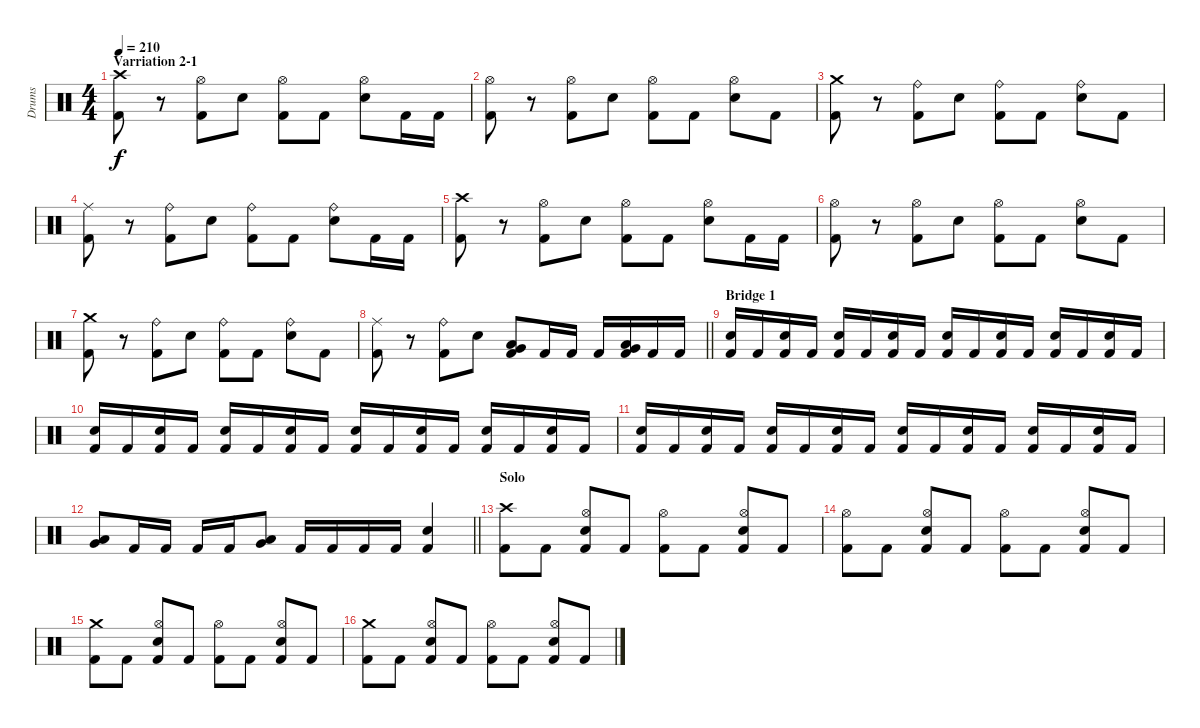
\track ("Drums" "Drums") {instrument percussion}
\staff {score}
\articulation defaults
\ts (4 4)
\section ("" "Varriation 2-1")
\tempo 210
\clef neutral
\ks c
("Crash high (hit)" "Kick (hit) 2").8{dy f} r.8 ("Hi-Hat (open)" "Kick (hit) 2").8 "Snare (hit) 2".8 ("Hi-Hat (open)" "Kick (hit) 2").8 "Kick (hit) 2".8 ("Hi-Hat (open)" "Snare (hit) 2").8 "Kick (hit) 2".16 "Kick (hit) 2".16 |
("Hi-Hat (open)" "Kick (hit) 2").8 r.8 ("Hi-Hat (open)" "Kick (hit) 2").8 "Snare (hit) 2".8 ("Hi-Hat (open)" "Kick (hit) 2").8 "Kick (hit) 2".8 ("Hi-Hat (open)" "Snare (hit) 2").8 "Kick (hit) 2".8 |
("Crash medium (hit)" "Kick (hit) 2").8 r.8 ("Ride (bell)" "Kick (hit) 2").8 "Snare (hit) 2".8 ("Ride (bell)" "Kick (hit) 2").8 "Kick (hit) 2".8 ("Ride (bell)" "Snare (hit) 2").8 "Kick (hit) 2".8 |
("Ride (middle)" "Kick (hit) 2").8 r.8 ("Ride (bell)" "Kick (hit) 2").8 "Snare (hit) 2".8 ("Ride (bell)" "Kick (hit) 2").8 "Kick (hit) 2".8 ("Ride (bell)" "Snare (hit) 2").8 "Kick (hit) 2".16 "Kick (hit) 2".16 |
("Crash high (hit)" "Kick (hit) 2").8 r.8 ("Hi-Hat (open)" "Kick (hit) 2").8 "Snare (hit) 2".8 ("Hi-Hat (open)" "Kick (hit) 2").8 "Kick (hit) 2".8 ("Hi-Hat (open)" "Snare (hit) 2").8 "Kick (hit) 2".16 "Kick (hit) 2".16 |
("Hi-Hat (open)" "Kick (hit) 2").8 r.8 ("Hi-Hat (open)" "Kick (hit) 2").8 "Snare (hit) 2".8 ("Hi-Hat (open)" "Kick (hit) 2").8 "Kick (hit) 2".8 ("Hi-Hat (open)" "Snare (hit) 2").8 "Kick (hit) 2".8 |
("Crash medium (hit)" "Kick (hit) 2").8 r.8 ("Ride (bell)" "Kick (hit) 2").8 "Snare (hit) 2".8 ("Ride (bell)" "Kick (hit) 2").8 "Kick (hit) 2".8 ("Ride (bell)" "Snare (hit) 2").8 "Kick (hit) 2".8 |
\barLineRight lightlight
("Ride (middle)" "Kick (hit) 2").8 r.8 ("Ride (bell)" "Kick (hit) 2").8 "Snare (hit) 2".8 ("Low Tom (hit)" "Very Low Tom (hit)" "Kick (hit) 2").8 "Kick (hit) 2".16 "Kick (hit) 2".16 "Kick (hit) 2".16 ("Low Tom (hit)" "Very Low Tom (hit)" "Kick (hit) 2").16 "Kick (hit) 2".16 "Kick (hit) 2".16 |
\section ("" "Bridge 1")
("Snare (hit) 2" "Kick (hit) 2").16 "Kick (hit) 2".16 ("Snare (hit) 2" "Kick (hit) 2").16 "Kick (hit) 2".16 ("Snare (hit) 2" "Kick (hit) 2").16 "Kick (hit) 2".16 ("Snare (hit) 2" "Kick (hit) 2").16 "Kick (hit) 2".16 ("Snare (hit) 2" "Kick (hit) 2").16 "Kick (hit) 2".16 ("Snare (hit) 2" "Kick (hit) 2").16 "Kick (hit) 2".16 ("Snare (hit) 2" "Kick (hit) 2").16 "Kick (hit) 2".16 ("Snare (hit) 2" "Kick (hit) 2").16 "Kick (hit) 2".16 |
("Snare (hit) 2" "Kick (hit) 2").16 "Kick (hit) 2".16 ("Snare (hit) 2" "Kick (hit) 2").16 "Kick (hit) 2".16 ("Snare (hit) 2" "Kick (hit) 2").16 "Kick (hit) 2".16 ("Snare (hit) 2" "Kick (hit) 2").16 "Kick (hit) 2".16 ("Snare (hit) 2" "Kick (hit) 2").16 "Kick (hit) 2".16 ("Snare (hit) 2" "Kick (hit) 2").16 "Kick (hit) 2".16 ("Snare (hit) 2" "Kick (hit) 2").16 "Kick (hit) 2".16 ("Snare (hit) 2" "Kick (hit) 2").16 "Kick (hit) 2".16 |
("Snare (hit) 2" "Kick (hit) 2").16 "Kick (hit) 2".16 ("Snare (hit) 2" "Kick (hit) 2").16 "Kick (hit) 2".16 ("Snare (hit) 2" "Kick (hit) 2").16 "Kick (hit) 2".16 ("Snare (hit) 2" "Kick (hit) 2").16 "Kick (hit) 2".16 ("Snare (hit) 2" "Kick (hit) 2").16 "Kick (hit) 2".16 ("Snare (hit) 2" "Kick (hit) 2").16 "Kick (hit) 2".16 ("Snare (hit) 2" "Kick (hit) 2").16 "Kick (hit) 2".16 ("Snare (hit) 2" "Kick (hit) 2").16 "Kick (hit) 2".16 |
\barLineRight lightlight
("Low Tom (hit)" "Very Low Tom (hit)").8 "Kick (hit) 2".16 "Kick (hit) 2".16 "Kick (hit) 2".16 "Kick (hit) 2".16 ("Low Tom (hit)" "Very Low Tom (hit)").8 "Kick (hit) 2".16 "Kick (hit) 2".16 "Kick (hit) 2".16 "Kick (hit) 2".16 ("Snare (hit) 2" "Kick (hit) 2").4 |
\section ("" "Solo")
("Crash high (hit)" "Kick (hit) 2").8 "Kick (hit) 2".8 ("Hi-Hat (open)" "Snare (hit) 2" "Kick (hit) 2").8 "Kick (hit) 2".8 ("Hi-Hat (open)" "Kick (hit) 2").8 "Kick (hit) 2".8 ("Hi-Hat (open)" "Snare (hit) 2" "Kick (hit) 2").8 "Kick (hit) 2".8 |
("Hi-Hat (open)" "Kick (hit) 2").8 "Kick (hit) 2".8 ("Hi-Hat (open)" "Snare (hit) 2" "Kick (hit) 2").8 "Kick (hit) 2".8 ("Hi-Hat (open)" "Kick (hit) 2").8 "Kick (hit) 2".8 ("Hi-Hat (open)" "Snare (hit) 2" "Kick (hit) 2").8 "Kick (hit) 2".8 |
("Crash medium (hit)" "Kick (hit) 2").8 "Kick (hit) 2".8 ("Hi-Hat (open)" "Snare (hit) 2" "Kick (hit) 2").8 "Kick (hit) 2".8 ("Hi-Hat (open)" "Kick (hit) 2").8 "Kick (hit) 2".8 ("Hi-Hat (open)" "Snare (hit) 2" "Kick (hit) 2").8 "Kick (hit) 2".8 |
("Crash medium (hit)" "Kick (hit) 2").8 "Kick (hit) 2".8 ("Hi-Hat (open)" "Snare (hit) 2" "Kick (hit) 2").8 "Kick (hit) 2".8 ("Hi-Hat (open)" "Kick (hit) 2").8 "Kick (hit) 2".8 ("Hi-Hat (open)" "Snare (hit) 2" "Kick (hit) 2").8 "Kick (hit) 2".8
